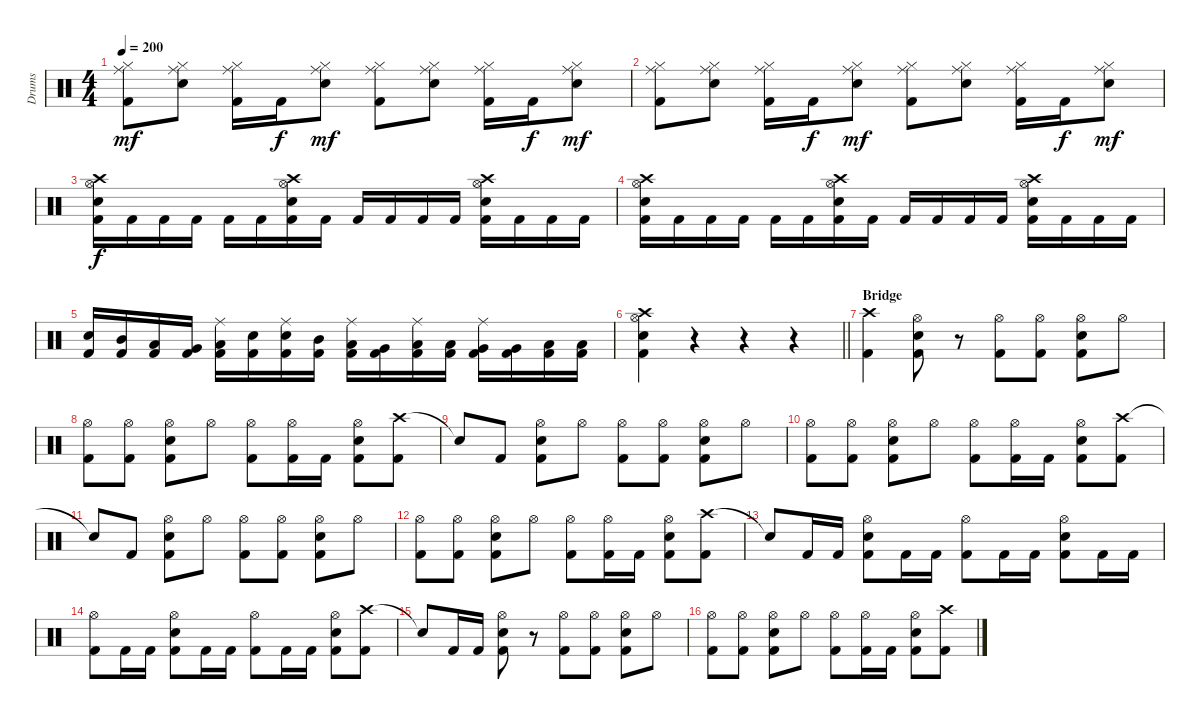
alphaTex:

\track ("Drums" "Drums") {instrument percussion}
\staff {score}
\articulation defaults
\ts (4 4)
\tempo 200
\clef neutral
\ks c
("Hi-Hat (closed)" "Ride (middle)" "Kick (hit) 2").8{dy mf} ("Hi-Hat (closed)" "Ride (middle)" "Snare (hit) 2").8 ("Hi-Hat (closed)" "Ride (middle)" "Kick (hit) 2").16 "Kick (hit) 2".16{dy f} ("Hi-Hat (closed)" "Ride (middle)" "Snare (hit) 2").8{dy mf} ("Hi-Hat (closed)" "Ride (middle)" "Kick (hit) 2").8 ("Hi-Hat (closed)" "Ride (middle)" "Snare (hit) 2").8 ("Hi-Hat (closed)" "Ride (middle)" "Kick (hit) 2").16 "Kick (hit) 2".16{dy f} ("Hi-Hat (closed)" "Ride (middle)" "Snare (hit) 2").8{dy mf} |
("Hi-Hat (closed)" "Ride (middle)" "Kick (hit) 2").8 ("Hi-Hat (closed)" "Ride (middle)" "Snare (hit) 2").8 ("Hi-Hat (closed)" "Ride (middle)" "Kick (hit) 2").16 "Kick (hit) 2".16{dy f} ("Hi-Hat (closed)" "Ride (middle)" "Snare (hit) 2").8{dy mf} ("Hi-Hat (closed)" "Ride (middle)" "Kick (hit) 2").8 ("Hi-Hat (closed)" "Ride (middle)" "Snare (hit) 2").8 ("Hi-Hat (closed)" "Ride (middle)" "Kick (hit) 2").16 "Kick (hit) 2".16{dy f} ("Hi-Hat (closed)" "Ride (middle)" "Snare (hit) 2").8{dy mf} |
("Crash high (hit)" "Hi-Hat (open)" "Snare (hit) 2" "Kick (hit) 2").16{dy f} "Kick (hit) 2".16 "Kick (hit) 2".16 "Kick (hit) 2".16 "Kick (hit) 2".16 "Kick (hit) 2".16 ("Crash high (hit)" "Hi-Hat (open)" "Snare (hit) 2" "Kick (hit) 2").16 "Kick (hit) 2".16 "Kick (hit) 2".16 "Kick (hit) 2".16 "Kick (hit) 2".16 "Kick (hit) 2".16 ("Crash high (hit)" "Hi-Hat (open)" "Snare (hit) 2" "Kick (hit) 2").16 "Kick (hit) 2".16 "Kick (hit) 2".16 "Kick (hit) 2".16 |
("Crash high (hit)" "Hi-Hat (open)" "Snare (hit) 2" "Kick (hit) 2").16 "Kick (hit) 2".16 "Kick (hit) 2".16 "Kick (hit) 2".16 "Kick (hit) 2".16 "Kick (hit) 2".16 ("Crash high (hit)" "Hi-Hat (open)" "Snare (hit) 2" "Kick (hit) 2").16 "Kick (hit) 2".16 "Kick (hit) 2".16 "Kick (hit) 2".16 "Kick (hit) 2".16 "Kick (hit) 2".16 ("Crash high (hit)" "Hi-Hat (open)" "Snare (hit) 2" "Kick (hit) 2").16 "Kick (hit) 2".16 "Kick (hit) 2".16 "Kick (hit) 2".16 |
("Snare (hit) 2" "Kick (hit) 2").16 ("Mid Tom (hit)" "Kick (hit) 2").16 ("Low Tom (hit)" "Kick (hit) 2").16 ("Very Low Tom (hit)" "Kick (hit) 2").16 ("Ride (middle)" "Low Floor Tom (hit)" "Kick (hit) 2").16 ("Snare (hit) 2" "Kick (hit) 2").16 ("Ride (middle)" "Snare (hit) 2" "Kick (hit) 2").16 ("Mid Tom (hit)" "Kick (hit) 2").16 ("Ride (middle)" "Low Tom (hit)" "Kick (hit) 2").16 ("Very Low Tom (hit)" "Kick (hit) 2").16 ("Ride (middle)" "Low Tom (hit)" "Kick (hit) 2").16 ("Low Tom (hit)" "Kick (hit) 2").16 ("Ride (middle)" "Very Low Tom (hit)" "Kick (hit) 2").16 ("Very Low Tom (hit)" "Kick (hit) 2").16 ("Low Floor Tom (hit)" "Kick (hit) 2").16 ("Low Floor Tom (hit)" "Kick (hit) 2").16 |
\barLineRight lightlight
("Crash high (hit)" "Hi-Hat (open)" "Snare (hit) 2" "Kick (hit) 2").4 r.4 r.4 r.4 |
\section ("" "Bridge")
("Crash high (hit)" "Kick (hit) 2").4 ("Hi-Hat (open)" "Snare (hit) 2" "Kick (hit) 2").8 r.8 ("Hi-Hat (open)" "Kick (hit) 2").8 ("Hi-Hat (open)" "Kick (hit) 2").8 ("Hi-Hat (open)" "Snare (hit) 2" "Kick (hit) 2").8 "Hi-Hat (open)".8 |
("Hi-Hat (open)" "Kick (hit) 2").8 ("Hi-Hat (open)" "Kick (hit) 2").8 ("Hi-Hat (open)" "Snare (hit) 2" "Kick (hit) 2").8 "Hi-Hat (open)".8 ("Hi-Hat (open)" "Kick (hit) 2").8 ("Hi-Hat (open)" "Kick (hit) 2").16 "Kick (hit) 2".16 ("Hi-Hat (open)" "Snare (hit) 2" "Kick (hit) 2").8 ("Crash high (hit)" "Kick (hit) 2").8 |
"Snare (hit)"{t}.8 "Kick (hit) 2".8 ("Hi-Hat (open)" "Snare (hit) 2" "Kick (hit) 2").8 "Hi-Hat (open)".8 ("Hi-Hat (open)" "Kick (hit) 2").8 ("Hi-Hat (open)" "Kick (hit) 2").8 ("Hi-Hat (open)" "Snare (hit) 2" "Kick (hit) 2").8 "Hi-Hat (open)".8 |
("Hi-Hat (open)" "Kick (hit) 2").8 ("Hi-Hat (open)" "Kick (hit) 2").8 ("Hi-Hat (open)" "Snare (hit) 2" "Kick (hit) 2").8 "Hi-Hat (open)".8 ("Hi-Hat (open)" "Kick (hit) 2").8 ("Hi-Hat (open)" "Kick (hit) 2").16 "Kick (hit) 2".16 ("Hi-Hat (open)" "Snare (hit) 2" "Kick (hit) 2").8 ("Crash high (hit)" "Kick (hit) 2").8 |
"Snare (hit)"{t}.8 "Kick (hit) 2".8 ("Hi-Hat (open)" "Snare (hit) 2" "Kick (hit) 2").8 "Hi-Hat (open)".8 ("Hi-Hat (open)" "Kick (hit) 2").8 ("Hi-Hat (open)" "Kick (hit) 2").8 ("Hi-Hat (open)" "Snare (hit) 2" "Kick (hit) 2").8 "Hi-Hat (open)".8 |
("Hi-Hat (open)" "Kick (hit) 2").8 ("Hi-Hat (open)" "Kick (hit) 2").8 ("Hi-Hat (open)" "Snare (hit) 2" "Kick (hit) 2").8 "Hi-Hat (open)".8 ("Hi-Hat (open)" "Kick (hit) 2").8 ("Hi-Hat (open)" "Kick (hit) 2").16 "Kick (hit) 2".16 ("Hi-Hat (open)" "Snare (hit) 2" "Kick (hit) 2").8 ("Crash high (hit)" "Kick (hit) 2").8 |
"Snare (hit)"{t}.8 "Kick (hit) 2".16 "Kick (hit) 2".16 ("Hi-Hat (open)" "Snare (hit) 2" "Kick (hit) 2").8 "Kick (hit) 2".16 "Kick (hit) 2".16 ("Hi-Hat (open)" "Kick (hit) 2").8 "Kick (hit) 2".16 "Kick (hit) 2".16 ("Hi-Hat (open)" "Snare (hit) 2" "Kick (hit) 2").8 "Kick (hit) 2".16 "Kick (hit) 2".16 |
("Hi-Hat (open)" "Kick (hit) 2").8 "Kick (hit) 2".16 "Kick (hit) 2".16 ("Hi-Hat (open)" "Snare (hit) 2" "Kick (hit) 2").8 "Kick (hit) 2".16 "Kick (hit) 2".16 ("Hi-Hat (open)" "Kick (hit) 2").8 "Kick (hit) 2".16 "Kick (hit) 2".16 ("Hi-Hat (open)" "Snare (hit) 2" "Kick (hit) 2").8 ("Crash high (hit)" "Kick (hit) 2").8 |
"Snare (hit)"{t}.8 "Kick (hit) 2".16 "Kick (hit) 2".16 ("Hi-Hat (open)" "Snare (hit) 2" "Kick (hit) 2").8 r.8 ("Hi-Hat (open)" "Kick (hit) 2").8 ("Hi-Hat (open)" "Kick (hit) 2").8 ("Hi-Hat (open)" "Snare (hit) 2" "Kick (hit) 2").8 "Hi-Hat (open)".8 |
("Hi-Hat (open)" "Kick (hit) 2").8 ("Hi-Hat (open)" "Kick (hit) 2").8 ("Hi-Hat (open)" "Snare (hit) 2" "Kick (hit) 2").8 "Hi-Hat (open)".8 ("Hi-Hat (open)" "Kick (hit) 2").8 ("Hi-Hat (open)" "Kick (hit) 2").16 "Kick (hit) 2".16 ("Hi-Hat (open)" "Snare (hit) 2" "Kick (hit) 2").8 ("Crash high (hit)" "Kick (hit) 2").8
